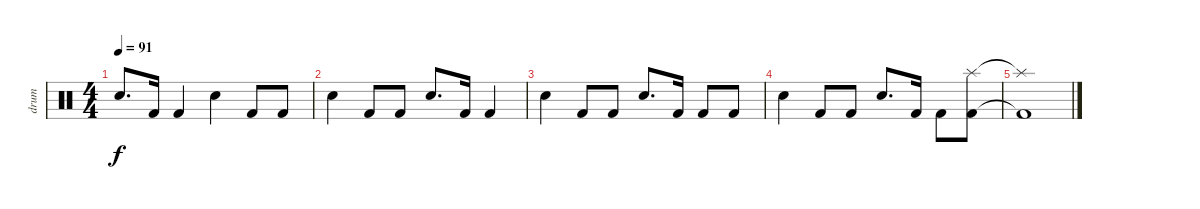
\track ("drum" "drum") {instrument percussion}
\staff {score}
\articulation defaults
\ts (4 4)
\tempo 91
\clef neutral
\ks c "Electric Snare (hit)".8{d dy f} "Kick (hit) 2".16 "Kick (hit) 2".4 "Electric Snare (hit)".4 "Kick (hit) 2".8 "Kick (hit) 2".8
|
"Electric Snare (hit)".4 "Kick (hit) 2".8 "Kick (hit) 2".8 "Electric Snare (hit)".8{d} "Kick (hit) 2".16 "Kick (hit) 2".4 |
"Electric Snare (hit)".4 "Kick (hit) 2".8 "Kick (hit) 2".8 "Electric Snare (hit)".8{d} "Kick (hit) 2".16 "Kick (hit) 2".8 "Kick (hit) 2".8 |
"Electric Snare (hit)".4 "Kick (hit) 2".8 "Kick (hit) 2".8 "Electric Snare (hit)".8{d} "Kick (hit) 2".16 "Kick (hit) 2".8 ("Splash (hit)" "Kick (hit) 2").8 |
("Splash (hit)"{t} "Kick (hit) 2"{t}).1
